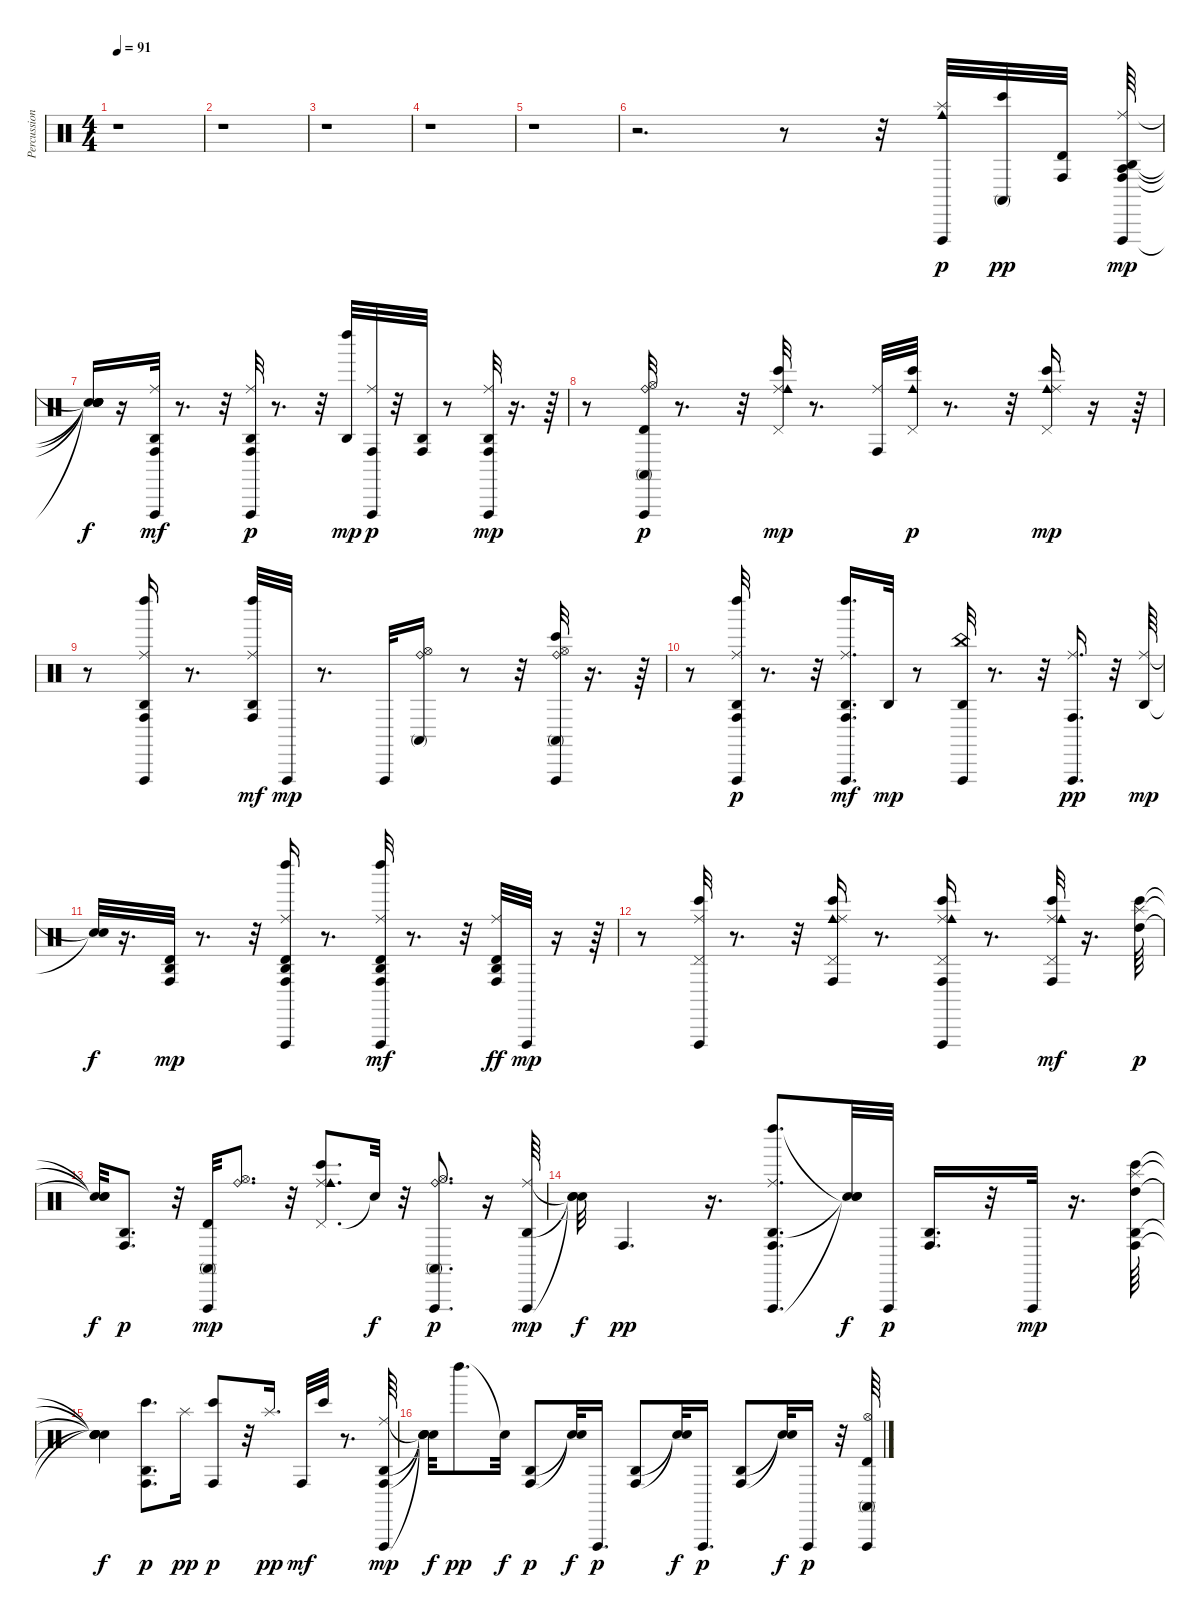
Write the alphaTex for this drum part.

\track ("Percussion Organ" "Percussion") {instrument percussion}
\staff {score}
\articulation defaults
\ts (4 4)
\tempo 91
\clef neutral
\ks c
r.1{dy ppp} |
r.1 |
r.1 |
r.1 |
r.1 |
r.2{d} r.8 r.32 ("Splash (hit)" "Cowbell medium (hit)" "Vibraslap (hit)").32{dy p} ("Bongo High (hit)" "Conga high (mute)").32{dy pp} ("Conga high (hit)" "Timbale high (hit)").32 ("Agogo high (hit)" "Agogo tow (hit)" "Ride (middle)" "Conga high (hit)" "Vibraslap (hit)").64{dy mp} |
("Snare (hit)"{t} "Snare (hit)"{t} "Snare (hit)"{t} "Snare (hit)"{t} "Snare (hit)"{t}).16{dy f} r.16 ("Agogo high (hit)" "Conga high (hit)" "Vibraslap (hit)" "Ride (middle)").32{dy mf} r.8{d} r.32 ("Ride (middle)" "Conga high (hit)" "Agogo high (hit)" "Vibraslap (hit)").32{dy p} r.8{d} r.32 ("Left Maraca (hit)" "Agogo high (hit)").32{dy mp} ("Conga high (hit)" "Ride (middle)" "Vibraslap (hit)").32{dy p} r.32 ("Agogo high (hit)" "Conga high (hit)").32 r.8 ("Agogo high (hit)" "Conga high (hit)" "Vibraslap (hit)" "Ride (middle)").32{dy mp} r.16{d} r.64 |
r.8 ("Timbale high (hit)" "Hi-Hat (open)" "Conga high (mute)" "Vibraslap (hit)" "Ride (bell)").32{dy p} r.8{d} r.32 ("Pedal Hi-Hat (hit)" "Bongo High (hit)" "Ride (middle)" "Cowbell medium (hit)").32{dy mp} r.8{d} ("Ride (middle)" "Conga high (hit)").32 ("Bongo High (hit)" "Cowbell medium (hit)" "Pedal Hi-Hat (hit)").32{dy p} r.8{d} r.32 ("Pedal Hi-Hat (hit)" "Bongo High (hit)" "Cowbell medium (hit)" "Ride (middle)").16{dy mp} r.16 r.64 |
r.8 ("Vibraslap (hit)" "Ride (middle)" "Agogo high (hit)" "Left Maraca (hit)" "Conga high (hit)").16 r.8{d} ("Left Maraca (hit)" "Agogo high (hit)" "Conga high (hit)" "Ride (middle)").32{dy mf} "Vibraslap (hit)".32{dy mp} r.8{d} "Vibraslap (hit)".32 ("Hi-Hat (open)" "Conga high (mute)" "Ride (bell)").16 r.8 r.32 ("Ride (bell)" "Vibraslap (hit)" "Conga high (mute)" "Hi-Hat (open)" "Bongo High (hit)").32 r.16{d} r.64 |
r.8 ("Vibraslap (hit)" "Agogo high (hit)" "Conga high (hit)" "Left Maraca (hit)" "Ride (middle)").32{dy p} r.8{d} r.32 ("Vibraslap (hit)" "Left Maraca (hit)" "Agogo high (hit)" "Ride (middle)" "Conga high (hit)").16{d dy mf} "Agogo high (hit)".32{dy mp} r.8 ("China (hit)" "Agogo high (hit)" "Vibraslap (hit)").32 r.8{d} r.32 ("Conga high (hit)" "Vibraslap (hit)" "Ride (middle)").16{d dy pp} r.32 ("Ride (middle)" "Agogo high (hit)").64{dy mp} |
("Snare (hit)"{t} "Snare (hit)"{t}).32{dy f} r.16{d} ("Agogo high (hit)" "Conga high (hit)" "Timbale high (hit)").32{dy mp} r.8{d} r.32 ("Left Maraca (hit)" "Agogo high (hit)" "Ride (middle)" "Vibraslap (hit)" "Timbale high (hit)" "Conga high (hit)").16 r.8{d} ("Vibraslap (hit)" "Left Maraca (hit)" "Agogo high (hit)" "Timbale high (hit)" "Ride (middle)" "Conga high (hit)").32{dy mf} r.8{d} r.32 ("Ride (middle)" "Timbale high (hit)" "Agogo high (hit)" "Conga high (hit)").32{dy ff} "Vibraslap (hit)".32{dy mp} r.16 r.64 |
r.8 ("Bongo High (hit)" "Vibraslap (hit)" "Ride (middle)" "Pedal Hi-Hat (hit)").32 r.8{d} r.32 ("Conga high (hit)" "Bongo High (hit)" "Cowbell medium (hit)" "Ride (middle)" "Pedal Hi-Hat (hit)").16 r.8{d} ("Pedal Hi-Hat (hit)" "Ride (middle)" "Bongo High (hit)" "Conga high (hit)" "Cowbell medium (hit)" "Vibraslap (hit)").16 r.8{d} ("Ride (middle)" "Pedal Hi-Hat (hit)" "Conga high (hit)" "Bongo High (hit)" "Cowbell medium (hit)").32{dy mf} r.16{d} ("High Tom (hit)" "Splash (hit)" "Bongo High (hit)").64{dy p} |
("Snare (hit)"{t} "Snare (hit)"{t} "Snare (hit)"{t}).32{dy f} ("Conga high (hit)" "Agogo high (hit)").8{d dy p} r.32 ("Timbale high (hit)" "Conga high (mute)" "Vibraslap (hit)").32{dy mp} ("Hi-Hat (open)" "Ride (bell)").8{d} r.32 ("Pedal Hi-Hat (hit)" "Ride (middle)" "Bongo High (hit)" "Cowbell medium (hit)").8{d} "Snare (hit)"{t}.32{dy f} r.32 ("Hi-Hat (open)" "Conga high (mute)" "Vibraslap (hit)" "Ride (bell)").8{d dy p} r.16 ("Ride (middle)" "Vibraslap (hit)" "Agogo high (hit)").64{dy mp} |
("Snare (hit)"{t} "Snare (hit)"{t} "Snare (hit)"{t}).32{dy f} "Conga high (hit)".4{d dy pp} r.16{d} ("Left Maraca (hit)" "Agogo high (hit)" "Vibraslap (hit)" "Conga high (hit)" "Ride (middle)").8{d} ("Snare (hit)"{t} "Snare (hit)"{t} "Snare (hit)"{t}).32{dy f} "Vibraslap (hit)".32{dy p} ("Agogo high (hit)" "Conga high (hit)").16{d} r.32 "Vibraslap (hit)".32{dy mp} r.16{d} ("Splash (hit)" "Agogo high (hit)" "Conga high (hit)" "High Tom (hit)" "Bongo High (hit)").64 |
("Snare (hit)"{t} "Snare (hit)"{t} "Snare (hit)"{t} "Snare (hit)"{t} "Snare (hit)"{t}).4{dy f} ("Agogo high (hit)" "Conga high (hit)" "Bongo High (hit)").8{d dy p} "Splash (hit)".16{dy pp} ("Conga high (hit)" "Bongo High (hit)").8{dy p} r.32 "Splash (hit)".16{d dy pp} "Conga high (hit)".32{dy mf} "Bongo High (hit)".32 r.8{d} ("Conga high (hit)" "Agogo high (hit)" "Vibraslap (hit)" "Ride (middle)").64{dy mp} |
("Snare (hit)"{t} "Snare (hit)"{t} "Snare (hit)"{t} "Snare (hit)"{t}).32{dy f} "Left Maraca (hit)".8{d dy pp} "Snare (hit)"{t}.32{dy f} ("Conga high (hit)" "Agogo high (hit)").8{dy p} ("Snare (hit)"{t} "Snare (hit)"{t}).32{dy f} "Vibraslap (hit)".16{d dy p} ("Conga high (hit)" "Agogo high (hit)").8 ("Snare (hit)"{t} "Snare (hit)"{t}).32{dy f} "Vibraslap (hit)".16{d dy p} ("Agogo high (hit)" "Conga high (hit)").8 ("Snare (hit)"{t} "Snare (hit)"{t}).32{dy f} "Vibraslap (hit)".16{dy p} r.32 ("Hi-Hat (open)" "Timbale high (hit)" "Conga high (mute)" "Vibraslap (hit)").64
